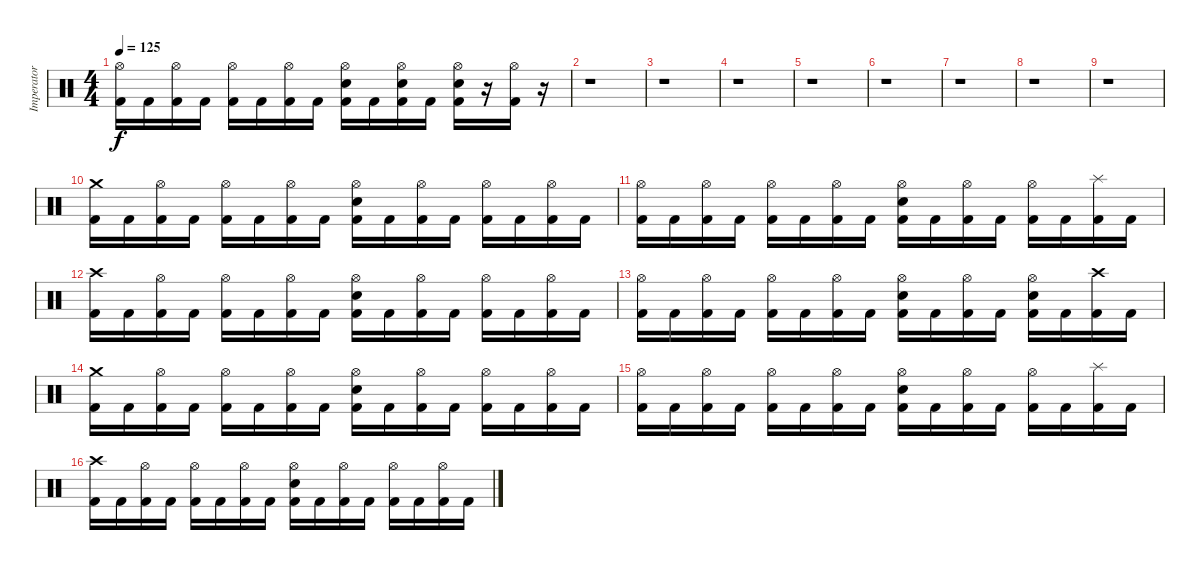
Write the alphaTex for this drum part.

\track ("Imperator" "Imperator") {instrument percussion}
\staff {score}
\articulation defaults
\ts (4 4)
\tempo 125
\clef neutral
\ks c
("Hi-Hat (open)" "Kick (hit) 2").16{dy f} "Kick (hit) 2".16 ("Hi-Hat (open)" "Kick (hit) 2").16 "Kick (hit) 2".16 ("Hi-Hat (open)" "Kick (hit) 2").16 "Kick (hit) 2".16 ("Hi-Hat (open)" "Kick (hit) 2").16 "Kick (hit) 2".16 ("Hi-Hat (open)" "Snare (hit) 2" "Kick (hit) 2").16 "Kick (hit) 2".16 ("Hi-Hat (open)" "Snare (hit) 2" "Kick (hit) 2").16 "Kick (hit) 2".16 ("Hi-Hat (open)" "Snare (hit) 2" "Kick (hit) 2").16 r.16 ("Hi-Hat (open)" "Kick (hit) 2").16 r.16 |
r.1 |
r.1 |
r.1 |
r.1 |
r.1 |
r.1 |
r.1 |
r.1 |
("Crash medium (hit)" "Kick (hit) 2").16 "Kick (hit) 2".16 ("Hi-Hat (open)" "Kick (hit) 2").16 "Kick (hit) 2".16 ("Hi-Hat (open)" "Kick (hit) 2").16 "Kick (hit) 2".16 ("Hi-Hat (open)" "Kick (hit) 2").16 "Kick (hit) 2".16 ("Hi-Hat (open)" "Snare (hit) 2" "Kick (hit) 2").16 "Kick (hit) 2".16 ("Hi-Hat (open)" "Kick (hit) 2").16 "Kick (hit) 2".16 ("Hi-Hat (open)" "Kick (hit) 2").16 "Kick (hit) 2".16 ("Hi-Hat (open)" "Kick (hit) 2").16 "Kick (hit) 2".16 |
("Hi-Hat (open)" "Kick (hit) 2").16 "Kick (hit) 2".16 ("Hi-Hat (open)" "Kick (hit) 2").16 "Kick (hit) 2".16 ("Hi-Hat (open)" "Kick (hit) 2").16 "Kick (hit) 2".16 ("Hi-Hat (open)" "Kick (hit) 2").16 "Kick (hit) 2".16 ("Hi-Hat (open)" "Snare (hit) 2" "Kick (hit) 2").16 "Kick (hit) 2".16 ("Hi-Hat (open)" "Kick (hit) 2").16 "Kick (hit) 2".16 ("Hi-Hat (open)" "Kick (hit) 2").16 "Kick (hit) 2".16 ("Splash (hit)" "Kick (hit) 2").16 "Kick (hit) 2".16 |
("Crash high (hit)" "Kick (hit) 2").16 "Kick (hit) 2".16 ("Hi-Hat (open)" "Kick (hit) 2").16 "Kick (hit) 2".16 ("Hi-Hat (open)" "Kick (hit) 2").16 "Kick (hit) 2".16 ("Hi-Hat (open)" "Kick (hit) 2").16 "Kick (hit) 2".16 ("Hi-Hat (open)" "Snare (hit) 2" "Kick (hit) 2").16 "Kick (hit) 2".16 ("Hi-Hat (open)" "Kick (hit) 2").16 "Kick (hit) 2".16 ("Hi-Hat (open)" "Kick (hit) 2").16 "Kick (hit) 2".16 ("Hi-Hat (open)" "Kick (hit) 2").16 "Kick (hit) 2".16 |
("Hi-Hat (open)" "Kick (hit) 2").16 "Kick (hit) 2".16 ("Hi-Hat (open)" "Kick (hit) 2").16 "Kick (hit) 2".16 ("Hi-Hat (open)" "Kick (hit) 2").16 "Kick (hit) 2".16 ("Hi-Hat (open)" "Kick (hit) 2").16 "Kick (hit) 2".16 ("Hi-Hat (open)" "Snare (hit) 2" "Kick (hit) 2").16 "Kick (hit) 2".16 ("Hi-Hat (open)" "Kick (hit) 2").16 "Kick (hit) 2".16 ("Hi-Hat (open)" "Snare (hit) 2" "Kick (hit) 2").16 "Kick (hit) 2".16 ("Crash high (hit)" "Kick (hit) 2").16 "Kick (hit) 2".16 |
("Crash medium (hit)" "Kick (hit) 2").16 "Kick (hit) 2".16 ("Hi-Hat (open)" "Kick (hit) 2").16 "Kick (hit) 2".16 ("Hi-Hat (open)" "Kick (hit) 2").16 "Kick (hit) 2".16 ("Hi-Hat (open)" "Kick (hit) 2").16 "Kick (hit) 2".16 ("Hi-Hat (open)" "Snare (hit) 2" "Kick (hit) 2").16 "Kick (hit) 2".16 ("Hi-Hat (open)" "Kick (hit) 2").16 "Kick (hit) 2".16 ("Hi-Hat (open)" "Kick (hit) 2").16 "Kick (hit) 2".16 ("Hi-Hat (open)" "Kick (hit) 2").16 "Kick (hit) 2".16 |
("Hi-Hat (open)" "Kick (hit) 2").16 "Kick (hit) 2".16 ("Hi-Hat (open)" "Kick (hit) 2").16 "Kick (hit) 2".16 ("Hi-Hat (open)" "Kick (hit) 2").16 "Kick (hit) 2".16 ("Hi-Hat (open)" "Kick (hit) 2").16 "Kick (hit) 2".16 ("Hi-Hat (open)" "Snare (hit) 2" "Kick (hit) 2").16 "Kick (hit) 2".16 ("Hi-Hat (open)" "Kick (hit) 2").16 "Kick (hit) 2".16 ("Hi-Hat (open)" "Kick (hit) 2").16 "Kick (hit) 2".16 ("Splash (hit)" "Kick (hit) 2").16 "Kick (hit) 2".16 |
("Crash high (hit)" "Kick (hit) 2").16 "Kick (hit) 2".16 ("Hi-Hat (open)" "Kick (hit) 2").16 "Kick (hit) 2".16 ("Hi-Hat (open)" "Kick (hit) 2").16 "Kick (hit) 2".16 ("Hi-Hat (open)" "Kick (hit) 2").16 "Kick (hit) 2".16 ("Hi-Hat (open)" "Snare (hit) 2" "Kick (hit) 2").16 "Kick (hit) 2".16 ("Hi-Hat (open)" "Kick (hit) 2").16 "Kick (hit) 2".16 ("Hi-Hat (open)" "Kick (hit) 2").16 "Kick (hit) 2".16 ("Hi-Hat (open)" "Kick (hit) 2").16 "Kick (hit) 2".16
